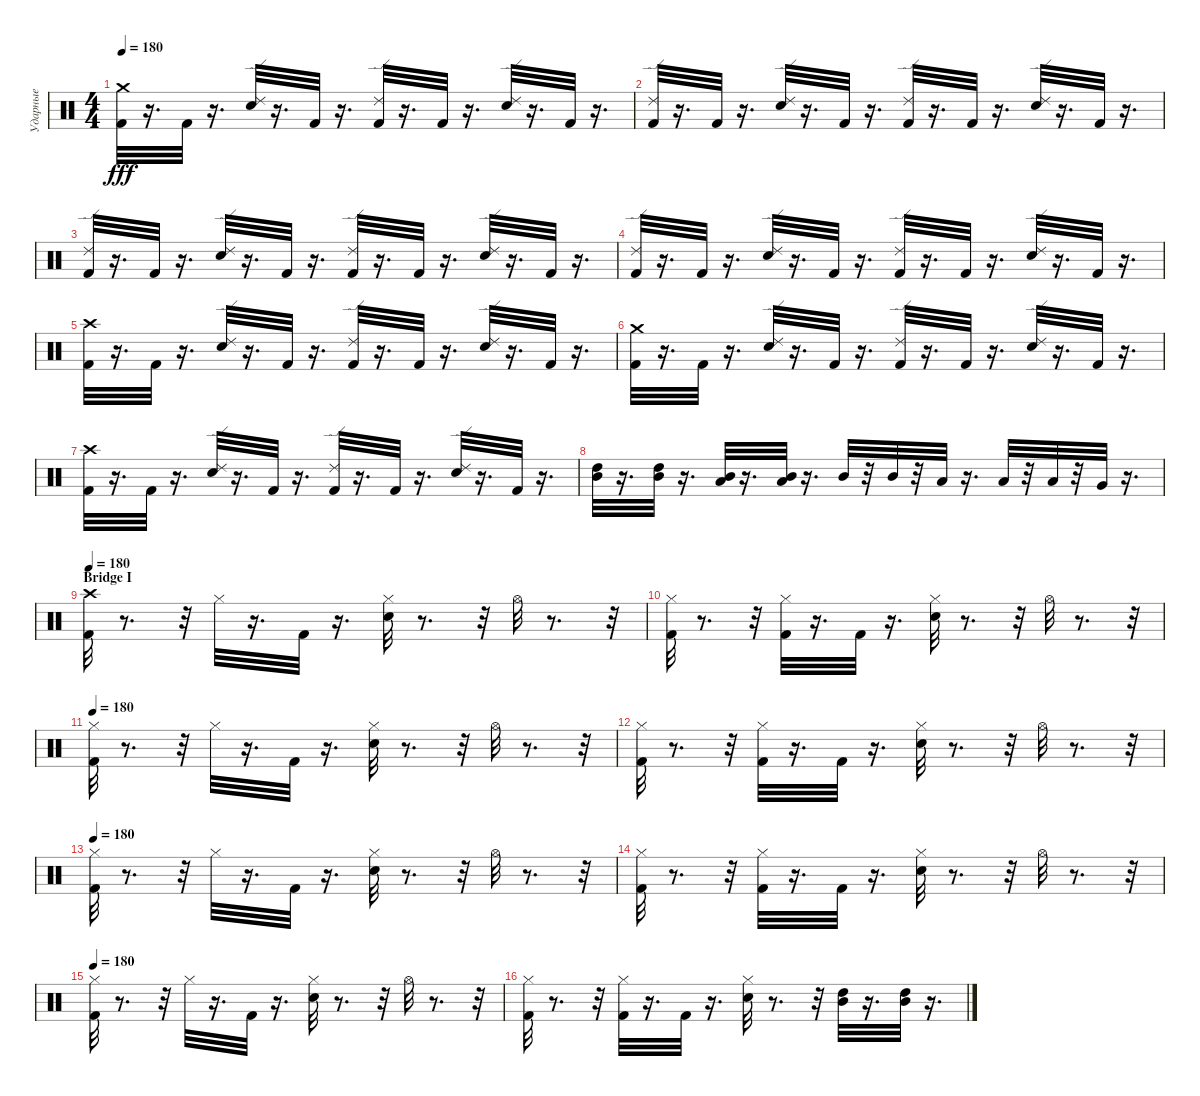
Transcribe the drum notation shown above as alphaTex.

\track ("Ударные" "Ударные") {instrument percussion}
\staff {score}
\articulation defaults
\ts (4 4)
\tempo 180
\clef neutral
\ks c
("Crash medium (hit)" "Kick (hit) 2").32{dy fff} r.16{d} "Kick (hit) 2".32 r.16{d} ("Snare (hit) 2" "Ride (edge) 2").32 r.16{d} "Kick (hit) 2".32 r.16{d} ("Ride (edge) 2" "Kick (hit) 2").32 r.16{d} "Kick (hit) 2".32 r.16{d} ("Snare (hit) 2" "Ride (edge) 2").32 r.16{d} "Kick (hit) 2".32 r.16{d} |
("Ride (edge) 2" "Kick (hit) 2").32 r.16{d} "Kick (hit) 2".32 r.16{d} ("Ride (edge) 2" "Snare (hit) 2").32 r.16{d} "Kick (hit) 2".32 r.16{d} ("Ride (edge) 2" "Kick (hit) 2").32 r.16{d} "Kick (hit) 2".32 r.16{d} ("Ride (edge) 2" "Snare (hit) 2").32 r.16{d} "Kick (hit) 2".32 r.16{d} |
("Kick (hit) 2" "Ride (edge) 2").32 r.16{d} "Kick (hit) 2".32 r.16{d} ("Ride (edge) 2" "Snare (hit) 2").32 r.16{d} "Kick (hit) 2".32 r.16{d} ("Kick (hit) 2" "Ride (edge) 2").32 r.16{d} "Kick (hit) 2".32 r.16{d} ("Snare (hit) 2" "Ride (edge) 2").32 r.16{d} "Kick (hit) 2".32 r.16{d} |
("Ride (edge) 2" "Kick (hit) 2").32 r.16{d} "Kick (hit) 2".32 r.16{d} ("Ride (edge) 2" "Snare (hit) 2").32 r.16{d} "Kick (hit) 2".32 r.16{d} ("Kick (hit) 2" "Ride (edge) 2").32 r.16{d} "Kick (hit) 2".32 r.16{d} ("Snare (hit) 2" "Ride (edge) 2").32 r.16{d} "Kick (hit) 2".32 r.16{d} |
("Kick (hit) 2" "Crash high (hit)").32 r.16{d} "Kick (hit) 2".32 r.16{d} ("Ride (edge) 2" "Snare (hit) 2").32 r.16{d} "Kick (hit) 2".32 r.16{d} ("Kick (hit) 2" "Ride (edge) 2").32 r.16{d} "Kick (hit) 2".32 r.16{d} ("Ride (edge) 2" "Snare (hit) 2").32 r.16{d} "Kick (hit) 2".32 r.16{d} |
("Crash medium (hit)" "Kick (hit) 2").32 r.16{d} "Kick (hit) 2".32 r.16{d} ("Snare (hit) 2" "Ride (edge) 2").32 r.16{d} "Kick (hit) 2".32 r.16{d} ("Kick (hit) 2" "Ride (edge) 2").32 r.16{d} "Kick (hit) 2".32 r.16{d} ("Snare (hit) 2" "Ride (edge) 2").32 r.16{d} "Kick (hit) 2".32 r.16{d} |
("Crash high (hit)" "Kick (hit) 2").32 r.16{d} "Kick (hit) 2".32 r.16{d} ("Snare (hit) 2" "Ride (edge) 2").32 r.16{d} "Kick (hit) 2".32 r.16{d} ("Kick (hit) 2" "Ride (edge) 2").32 r.16{d} "Kick (hit) 2".32 r.16{d} ("Snare (hit) 2" "Ride (edge) 2").32 r.16{d} "Kick (hit) 2".32 r.16{d} |
("High Tom (hit)" "Mid Tom (hit)").32 r.16{d} ("High Tom (hit)" "Mid Tom (hit)").32 r.16{d} ("Low Tom (hit)" "Mid Tom (hit)").32 r.16{d} ("Mid Tom (hit)" "Low Tom (hit)").32 r.16{d} "Mid Tom (hit)".32 r.32 "Mid Tom (hit)".32 r.32 "Low Tom (hit)".32 r.16{d} "Low Tom (hit)".32 r.32 "Low Tom (hit)".32 r.32 "Very Low Tom (hit)".32 r.16{d} |
\section ("" "Bridge I")
\tempo 180
("Crash high (hit)" "Kick (hit) 2").32 r.8{d} r.32 "Hi-Hat (closed)".32 r.16{d} "Kick (hit) 2".32 r.16{d} ("Snare (hit) 2" "Hi-Hat (closed)").32 r.8{d} r.32 "Hi-Hat (open)".32 r.8{d} r.32 |
("Hi-Hat (closed)" "Kick (hit) 2").32 r.8{d} r.32 ("Hi-Hat (closed)" "Kick (hit) 2").32 r.16{d} "Kick (hit) 2".32 r.16{d} ("Snare (hit) 2" "Hi-Hat (closed)").32 r.8{d} r.32 "Hi-Hat (open)".32 r.8{d} r.32 |
\tempo 180
("Kick (hit) 2" "Hi-Hat (closed)").32 r.8{d} r.32 "Hi-Hat (closed)".32 r.16{d} "Kick (hit) 2".32 r.16{d} ("Snare (hit) 2" "Hi-Hat (closed)").32 r.8{d} r.32 "Hi-Hat (open)".32 r.8{d} r.32 |
("Kick (hit) 2" "Hi-Hat (closed)").32 r.8{d} r.32 ("Hi-Hat (closed)" "Kick (hit) 2").32 r.16{d} "Kick (hit) 2".32 r.16{d} ("Snare (hit) 2" "Hi-Hat (closed)").32 r.8{d} r.32 "Hi-Hat (open)".32 r.8{d} r.32 |
\tempo 180
("Hi-Hat (closed)" "Kick (hit) 2").32 r.8{d} r.32 "Hi-Hat (closed)".32 r.16{d} "Kick (hit) 2".32 r.16{d} ("Hi-Hat (closed)" "Snare (hit) 2").32 r.8{d} r.32 "Hi-Hat (open)".32 r.8{d} r.32 |
("Kick (hit) 2" "Hi-Hat (closed)").32 r.8{d} r.32 ("Kick (hit) 2" "Hi-Hat (closed)").32 r.16{d} "Kick (hit) 2".32 r.16{d} ("Hi-Hat (closed)" "Snare (hit) 2").32 r.8{d} r.32 "Hi-Hat (open)".32 r.8{d} r.32 |
\tempo 180
("Hi-Hat (closed)" "Kick (hit) 2").32 r.8{d} r.32 "Hi-Hat (closed)".32 r.16{d} "Kick (hit) 2".32 r.16{d} ("Snare (hit) 2" "Hi-Hat (closed)").32 r.8{d} r.32 "Hi-Hat (open)".32 r.8{d} r.32 |
("Kick (hit) 2" "Hi-Hat (closed)").32 r.8{d} r.32 ("Hi-Hat (closed)" "Kick (hit) 2").32 r.16{d} "Kick (hit) 2".32 r.16{d} ("Snare (hit) 2" "Hi-Hat (closed)").32 r.8{d} r.32 ("High Tom (hit)" "Mid Tom (hit)").32 r.16{d} ("Mid Tom (hit)" "High Tom (hit)").32 r.16{d}
